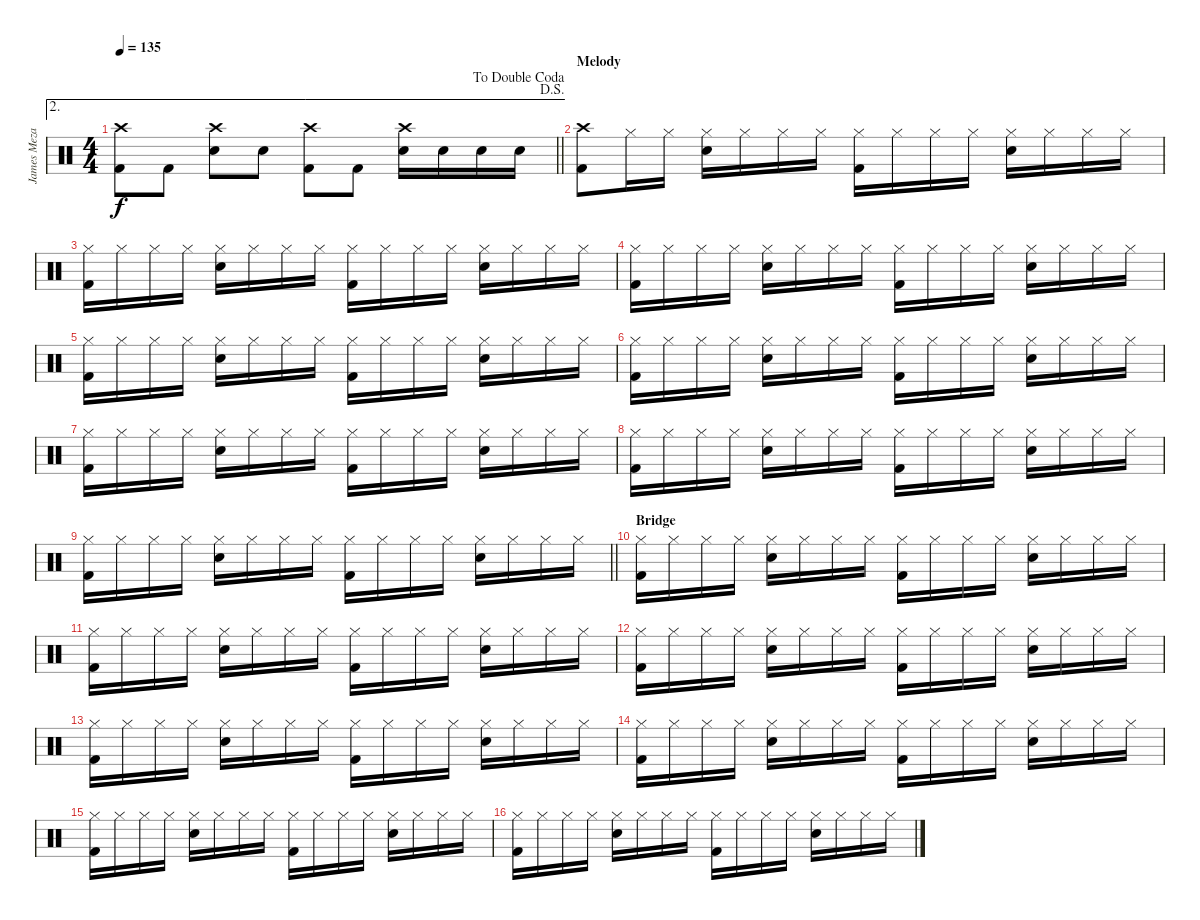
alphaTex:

\track ("James Meza - Drums" "James Meza") {instrument percussion}
\staff {score}
\articulation defaults
\ae 2
\ts (4 4)
\jump dalsegno
\jump dadoublecoda
\tempo 135
\clef neutral
\barLineRight lightlight
\ks c
("Crash high (hit)" "Kick (hit) 2").8{dy f} "Kick (hit) 2".8 ("Crash high (hit)" "Electric Snare (hit)").8 "Electric Snare (hit)".8 ("Crash high (hit)" "Kick (hit) 2").8 "Kick (hit) 2".8 ("Crash high (hit)" "Electric Snare (hit)").16 "Electric Snare (hit)".16 "Electric Snare (hit)".16 "Electric Snare (hit)".16 |
\section ("" "Melody")
("Crash high (hit)" "Kick (hit) 2").8 "Hi-Hat (closed)".16 "Hi-Hat (closed)".16 ("Hi-Hat (closed)" "Electric Snare (hit)").16 "Hi-Hat (closed)".16 "Hi-Hat (closed)".16 "Hi-Hat (closed)".16 ("Hi-Hat (closed)" "Kick (hit) 2").16 "Hi-Hat (closed)".16 "Hi-Hat (closed)".16 "Hi-Hat (closed)".16 ("Hi-Hat (closed)" "Electric Snare (hit)").16 "Hi-Hat (closed)".16 "Hi-Hat (closed)".16 "Hi-Hat (closed)".16 |
("Hi-Hat (closed)" "Kick (hit) 2").16 "Hi-Hat (closed)".16 "Hi-Hat (closed)".16 "Hi-Hat (closed)".16 ("Hi-Hat (closed)" "Electric Snare (hit)").16 "Hi-Hat (closed)".16 "Hi-Hat (closed)".16 "Hi-Hat (closed)".16 ("Hi-Hat (closed)" "Kick (hit) 2").16 "Hi-Hat (closed)".16 "Hi-Hat (closed)".16 "Hi-Hat (closed)".16 ("Hi-Hat (closed)" "Electric Snare (hit)").16 "Hi-Hat (closed)".16 "Hi-Hat (closed)".16 "Hi-Hat (closed)".16 |
("Hi-Hat (closed)" "Kick (hit) 2").16 "Hi-Hat (closed)".16 "Hi-Hat (closed)".16 "Hi-Hat (closed)".16 ("Hi-Hat (closed)" "Electric Snare (hit)").16 "Hi-Hat (closed)".16 "Hi-Hat (closed)".16 "Hi-Hat (closed)".16 ("Hi-Hat (closed)" "Kick (hit) 2").16 "Hi-Hat (closed)".16 "Hi-Hat (closed)".16 "Hi-Hat (closed)".16 ("Hi-Hat (closed)" "Electric Snare (hit)").16 "Hi-Hat (closed)".16 "Hi-Hat (closed)".16 "Hi-Hat (closed)".16 |
("Hi-Hat (closed)" "Kick (hit) 2").16 "Hi-Hat (closed)".16 "Hi-Hat (closed)".16 "Hi-Hat (closed)".16 ("Hi-Hat (closed)" "Electric Snare (hit)").16 "Hi-Hat (closed)".16 "Hi-Hat (closed)".16 "Hi-Hat (closed)".16 ("Hi-Hat (closed)" "Kick (hit) 2").16 "Hi-Hat (closed)".16 "Hi-Hat (closed)".16 "Hi-Hat (closed)".16 ("Hi-Hat (closed)" "Electric Snare (hit)").16 "Hi-Hat (closed)".16 "Hi-Hat (closed)".16 "Hi-Hat (closed)".16 |
("Hi-Hat (closed)" "Kick (hit) 2").16 "Hi-Hat (closed)".16 "Hi-Hat (closed)".16 "Hi-Hat (closed)".16 ("Hi-Hat (closed)" "Electric Snare (hit)").16 "Hi-Hat (closed)".16 "Hi-Hat (closed)".16 "Hi-Hat (closed)".16 ("Hi-Hat (closed)" "Kick (hit) 2").16 "Hi-Hat (closed)".16 "Hi-Hat (closed)".16 "Hi-Hat (closed)".16 ("Hi-Hat (closed)" "Electric Snare (hit)").16 "Hi-Hat (closed)".16 "Hi-Hat (closed)".16 "Hi-Hat (closed)".16 |
("Hi-Hat (closed)" "Kick (hit) 2").16 "Hi-Hat (closed)".16 "Hi-Hat (closed)".16 "Hi-Hat (closed)".16 ("Hi-Hat (closed)" "Electric Snare (hit)").16 "Hi-Hat (closed)".16 "Hi-Hat (closed)".16 "Hi-Hat (closed)".16 ("Hi-Hat (closed)" "Kick (hit) 2").16 "Hi-Hat (closed)".16 "Hi-Hat (closed)".16 "Hi-Hat (closed)".16 ("Hi-Hat (closed)" "Electric Snare (hit)").16 "Hi-Hat (closed)".16 "Hi-Hat (closed)".16 "Hi-Hat (closed)".16 |
("Hi-Hat (closed)" "Kick (hit) 2").16 "Hi-Hat (closed)".16 "Hi-Hat (closed)".16 "Hi-Hat (closed)".16 ("Hi-Hat (closed)" "Electric Snare (hit)").16 "Hi-Hat (closed)".16 "Hi-Hat (closed)".16 "Hi-Hat (closed)".16 ("Hi-Hat (closed)" "Kick (hit) 2").16 "Hi-Hat (closed)".16 "Hi-Hat (closed)".16 "Hi-Hat (closed)".16 ("Hi-Hat (closed)" "Electric Snare (hit)").16 "Hi-Hat (closed)".16 "Hi-Hat (closed)".16 "Hi-Hat (closed)".16 |
\barLineRight lightlight
("Hi-Hat (closed)" "Kick (hit) 2").16 "Hi-Hat (closed)".16 "Hi-Hat (closed)".16 "Hi-Hat (closed)".16 ("Hi-Hat (closed)" "Electric Snare (hit)").16 "Hi-Hat (closed)".16 "Hi-Hat (closed)".16 "Hi-Hat (closed)".16 ("Hi-Hat (closed)" "Kick (hit) 2").16 "Hi-Hat (closed)".16 "Hi-Hat (closed)".16 "Hi-Hat (closed)".16 ("Hi-Hat (closed)" "Electric Snare (hit)").16 "Hi-Hat (closed)".16 "Hi-Hat (closed)".16 "Hi-Hat (closed)".16 |
\section ("" "Bridge")
("Hi-Hat (closed)" "Kick (hit) 2").16 "Hi-Hat (closed)".16 "Hi-Hat (closed)".16 "Hi-Hat (closed)".16 ("Hi-Hat (closed)" "Electric Snare (hit)").16 "Hi-Hat (closed)".16 "Hi-Hat (closed)".16 "Hi-Hat (closed)".16 ("Hi-Hat (closed)" "Kick (hit) 2").16 "Hi-Hat (closed)".16 "Hi-Hat (closed)".16 "Hi-Hat (closed)".16 ("Hi-Hat (closed)" "Electric Snare (hit)").16 "Hi-Hat (closed)".16 "Hi-Hat (closed)".16 "Hi-Hat (closed)".16 |
("Hi-Hat (closed)" "Kick (hit) 2").16 "Hi-Hat (closed)".16 "Hi-Hat (closed)".16 "Hi-Hat (closed)".16 ("Hi-Hat (closed)" "Electric Snare (hit)").16 "Hi-Hat (closed)".16 "Hi-Hat (closed)".16 "Hi-Hat (closed)".16 ("Hi-Hat (closed)" "Kick (hit) 2").16 "Hi-Hat (closed)".16 "Hi-Hat (closed)".16 "Hi-Hat (closed)".16 ("Hi-Hat (closed)" "Electric Snare (hit)").16 "Hi-Hat (closed)".16 "Hi-Hat (closed)".16 "Hi-Hat (closed)".16 |
("Hi-Hat (closed)" "Kick (hit) 2").16 "Hi-Hat (closed)".16 "Hi-Hat (closed)".16 "Hi-Hat (closed)".16 ("Hi-Hat (closed)" "Electric Snare (hit)").16 "Hi-Hat (closed)".16 "Hi-Hat (closed)".16 "Hi-Hat (closed)".16 ("Hi-Hat (closed)" "Kick (hit) 2").16 "Hi-Hat (closed)".16 "Hi-Hat (closed)".16 "Hi-Hat (closed)".16 ("Hi-Hat (closed)" "Electric Snare (hit)").16 "Hi-Hat (closed)".16 "Hi-Hat (closed)".16 "Hi-Hat (closed)".16 |
("Hi-Hat (closed)" "Kick (hit) 2").16 "Hi-Hat (closed)".16 "Hi-Hat (closed)".16 "Hi-Hat (closed)".16 ("Hi-Hat (closed)" "Electric Snare (hit)").16 "Hi-Hat (closed)".16 "Hi-Hat (closed)".16 "Hi-Hat (closed)".16 ("Hi-Hat (closed)" "Kick (hit) 2").16 "Hi-Hat (closed)".16 "Hi-Hat (closed)".16 "Hi-Hat (closed)".16 ("Hi-Hat (closed)" "Electric Snare (hit)").16 "Hi-Hat (closed)".16 "Hi-Hat (closed)".16 "Hi-Hat (closed)".16 |
("Hi-Hat (closed)" "Kick (hit) 2").16 "Hi-Hat (closed)".16 "Hi-Hat (closed)".16 "Hi-Hat (closed)".16 ("Hi-Hat (closed)" "Electric Snare (hit)").16 "Hi-Hat (closed)".16 "Hi-Hat (closed)".16 "Hi-Hat (closed)".16 ("Hi-Hat (closed)" "Kick (hit) 2").16 "Hi-Hat (closed)".16 "Hi-Hat (closed)".16 "Hi-Hat (closed)".16 ("Hi-Hat (closed)" "Electric Snare (hit)").16 "Hi-Hat (closed)".16 "Hi-Hat (closed)".16 "Hi-Hat (closed)".16 |
("Hi-Hat (closed)" "Kick (hit) 2").16 "Hi-Hat (closed)".16 "Hi-Hat (closed)".16 "Hi-Hat (closed)".16 ("Hi-Hat (closed)" "Electric Snare (hit)").16 "Hi-Hat (closed)".16 "Hi-Hat (closed)".16 "Hi-Hat (closed)".16 ("Hi-Hat (closed)" "Kick (hit) 2").16 "Hi-Hat (closed)".16 "Hi-Hat (closed)".16 "Hi-Hat (closed)".16 ("Hi-Hat (closed)" "Electric Snare (hit)").16 "Hi-Hat (closed)".16 "Hi-Hat (closed)".16 "Hi-Hat (closed)".16 |
("Hi-Hat (closed)" "Kick (hit) 2").16 "Hi-Hat (closed)".16 "Hi-Hat (closed)".16 "Hi-Hat (closed)".16 ("Hi-Hat (closed)" "Electric Snare (hit)").16 "Hi-Hat (closed)".16 "Hi-Hat (closed)".16 "Hi-Hat (closed)".16 ("Hi-Hat (closed)" "Kick (hit) 2").16 "Hi-Hat (closed)".16 "Hi-Hat (closed)".16 "Hi-Hat (closed)".16 ("Hi-Hat (closed)" "Electric Snare (hit)").16 "Hi-Hat (closed)".16 "Hi-Hat (closed)".16 "Hi-Hat (closed)".16
